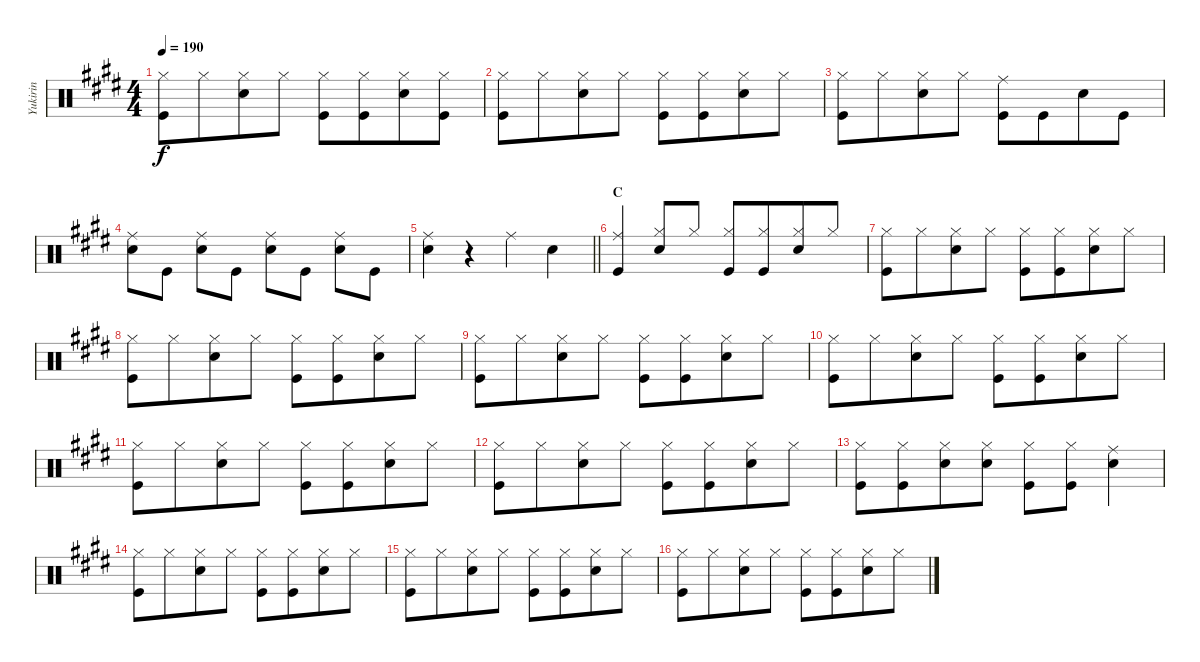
\track ("Yukirin" "Yukirin") {mute instrument percussion}
\staff {score}
\articulation defaults
\ts (4 4)
\tempo 190
\clef neutral
\ks e
("Hi-Hat (closed)" "Kick (hit)").8{dy f} "Hi-Hat (closed)".8{beam merge} ("Hi-Hat (closed)" "Snare (hit) 2").8 "Hi-Hat (closed)".8 ("Hi-Hat (closed)" "Kick (hit)").8 ("Hi-Hat (closed)" "Kick (hit)").8{beam merge} ("Hi-Hat (closed)" "Snare (hit) 2").8 ("Hi-Hat (closed)" "Kick (hit)").8 |
("Hi-Hat (closed)" "Kick (hit)").8 "Hi-Hat (closed)".8{beam merge} ("Hi-Hat (closed)" "Snare (hit) 2").8 "Hi-Hat (closed)".8 ("Hi-Hat (closed)" "Kick (hit)").8 ("Hi-Hat (closed)" "Kick (hit)").8{beam merge} ("Hi-Hat (closed)" "Snare (hit) 2").8 "Hi-Hat (closed)".8 |
("Hi-Hat (closed)" "Kick (hit)").8 "Hi-Hat (closed)".8{beam merge} ("Hi-Hat (closed)" "Snare (hit) 2").8 "Hi-Hat (closed)".8 ("Ride (middle)" "Kick (hit)").8 "Kick (hit)".8{beam merge} "Snare (hit) 2".8 "Kick (hit)".8 |
("Ride (middle)" "Snare (hit) 2").8 "Kick (hit)".8 ("Ride (middle)" "Snare (hit) 2").8 "Kick (hit)".8 ("Ride (middle)" "Snare (hit) 2").8 "Kick (hit)".8 ("Ride (middle)" "Snare (hit) 2").8 "Kick (hit)".8 |
\barLineRight lightlight
("Ride (middle)" "Snare (hit) 2").4 r.4 "Ride (middle)".4 "Snare (hit) 2".4 |
\section ("" "C")
("Ride (middle)" "Kick (hit)").4{beam Up} ("Hi-Hat (closed)" "Snare (hit) 2").8{beam Up} "Hi-Hat (closed)".8{beam Up} ("Hi-Hat (closed)" "Kick (hit)").8{beam Up} ("Hi-Hat (closed)" "Kick (hit)").8{beam Up beam merge} ("Hi-Hat (closed)" "Snare (hit) 2").8{beam Up} "Hi-Hat (closed)".8{beam Up} |
("Hi-Hat (closed)" "Kick (hit)").8 "Hi-Hat (closed)".8{beam merge} ("Hi-Hat (closed)" "Snare (hit) 2").8 "Hi-Hat (closed)".8 ("Hi-Hat (closed)" "Kick (hit)").8 ("Hi-Hat (closed)" "Kick (hit)").8{beam merge} ("Hi-Hat (closed)" "Snare (hit) 2").8 "Hi-Hat (closed)".8 |
("Hi-Hat (closed)" "Kick (hit)").8 "Hi-Hat (closed)".8{beam merge} ("Hi-Hat (closed)" "Snare (hit) 2").8 "Hi-Hat (closed)".8 ("Hi-Hat (closed)" "Kick (hit)").8 ("Hi-Hat (closed)" "Kick (hit)").8{beam merge} ("Hi-Hat (closed)" "Snare (hit) 2").8 "Hi-Hat (closed)".8 |
("Hi-Hat (closed)" "Kick (hit)").8 "Hi-Hat (closed)".8{beam merge} ("Hi-Hat (closed)" "Snare (hit) 2").8 "Hi-Hat (closed)".8 ("Hi-Hat (closed)" "Kick (hit)").8 ("Hi-Hat (closed)" "Kick (hit)").8{beam merge} ("Hi-Hat (closed)" "Snare (hit) 2").8 "Hi-Hat (closed)".8 |
("Hi-Hat (closed)" "Kick (hit)").8 "Hi-Hat (closed)".8{beam merge} ("Hi-Hat (closed)" "Snare (hit) 2").8 "Hi-Hat (closed)".8 ("Hi-Hat (closed)" "Kick (hit)").8 ("Hi-Hat (closed)" "Kick (hit)").8{beam merge} ("Hi-Hat (closed)" "Snare (hit) 2").8 "Hi-Hat (closed)".8 |
("Hi-Hat (closed)" "Kick (hit)").8 "Hi-Hat (closed)".8{beam merge} ("Hi-Hat (closed)" "Snare (hit) 2").8 "Hi-Hat (closed)".8 ("Hi-Hat (closed)" "Kick (hit)").8 ("Hi-Hat (closed)" "Kick (hit)").8{beam merge} ("Hi-Hat (closed)" "Snare (hit) 2").8 "Hi-Hat (closed)".8 |
("Hi-Hat (closed)" "Kick (hit)").8 "Hi-Hat (closed)".8{beam merge} ("Hi-Hat (closed)" "Snare (hit) 2").8 "Hi-Hat (closed)".8 ("Hi-Hat (closed)" "Kick (hit)").8 ("Hi-Hat (closed)" "Kick (hit)").8{beam merge} ("Hi-Hat (closed)" "Snare (hit) 2").8 "Hi-Hat (closed)".8 |
("Hi-Hat (closed)" "Kick (hit)").8 ("Hi-Hat (closed)" "Kick (hit)").8{beam merge} ("Hi-Hat (closed)" "Snare (hit) 2").8 ("Hi-Hat (closed)" "Snare (hit) 2").8 ("Hi-Hat (closed)" "Kick (hit)").8 ("Hi-Hat (closed)" "Kick (hit)").8{beam merge} ("Ride (middle)" "Snare (hit) 2").4 |
("Hi-Hat (closed)" "Kick (hit)").8 "Hi-Hat (closed)".8{beam merge} ("Hi-Hat (closed)" "Snare (hit) 2").8 "Hi-Hat (closed)".8 ("Hi-Hat (closed)" "Kick (hit)").8 ("Hi-Hat (closed)" "Kick (hit)").8{beam merge} ("Hi-Hat (closed)" "Snare (hit) 2").8 "Hi-Hat (closed)".8 |
("Hi-Hat (closed)" "Kick (hit)").8 "Hi-Hat (closed)".8{beam merge} ("Hi-Hat (closed)" "Snare (hit) 2").8 "Hi-Hat (closed)".8 ("Hi-Hat (closed)" "Kick (hit)").8 ("Hi-Hat (closed)" "Kick (hit)").8{beam merge} ("Hi-Hat (closed)" "Snare (hit) 2").8 "Hi-Hat (closed)".8 |
("Hi-Hat (closed)" "Kick (hit)").8 "Hi-Hat (closed)".8{beam merge} ("Hi-Hat (closed)" "Snare (hit) 2").8 "Hi-Hat (closed)".8 ("Hi-Hat (closed)" "Kick (hit)").8 ("Hi-Hat (closed)" "Kick (hit)").8{beam merge} ("Hi-Hat (closed)" "Snare (hit) 2").8 "Hi-Hat (closed)".8
